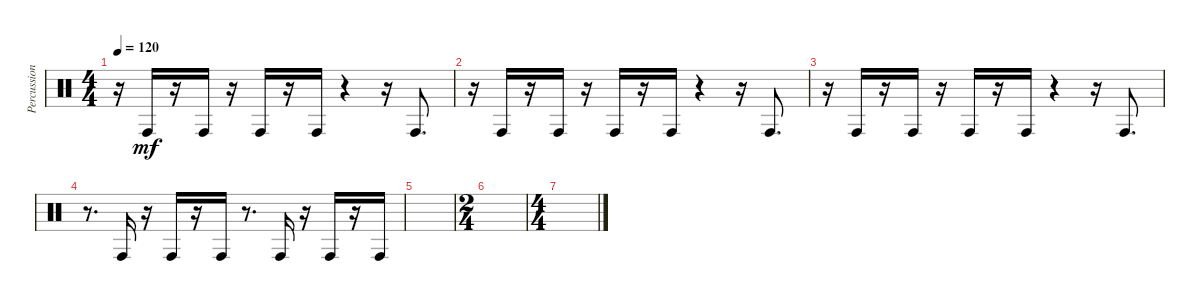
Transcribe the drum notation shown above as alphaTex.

\track ("Percussions 2" "Percussion") {instrument percussion}
\staff {score}
\articulation defaults
\ts (4 4)
\tempo 120
\clef neutral
\ks c
r.16{dy mf} "Conga high (hit)".16 r.16 "Conga high (hit)".16 r.16 "Conga high (hit)".16 r.16 "Conga high (hit)".16 r.4 r.16 "Conga high (hit)".8{d} |
r.16 "Conga high (hit)".16 r.16 "Conga high (hit)".16 r.16 "Conga high (hit)".16 r.16 "Conga high (hit)".16 r.4 r.16 "Conga high (hit)".8{d} |
r.16 "Conga high (hit)".16 r.16 "Conga high (hit)".16 r.16 "Conga high (hit)".16 r.16 "Conga high (hit)".16 r.4 r.16 "Conga high (hit)".8{d} |
r.8{d} "Conga high (hit)".16 r.16 "Conga high (hit)".16 r.16 "Conga high (hit)".16 r.8{d} "Conga high (hit)".16 r.16 "Conga high (hit)".16 r.16 "Conga high (hit)".16 |
|
\ts (2 4)
|
\ts (4 4)
